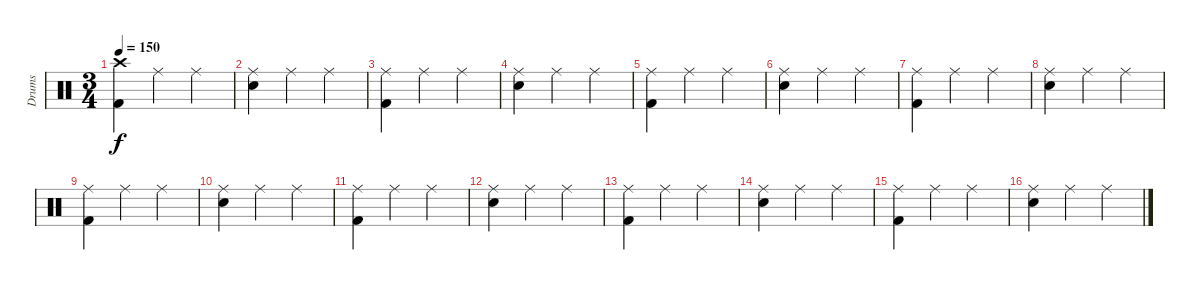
\track ("Drums" "Drums") {instrument percussion}
\staff {score}
\articulation defaults
\ts (3 4)
\tempo 150
\clef neutral
\ks c
("Crash high (hit)" "Kick (hit) 2").4{dy f volume 9} "Ride (middle)".4 "Ride (middle)".4 |
("Ride (middle)" "Snare (hit) 2").4 "Ride (middle)".4 "Ride (middle)".4 |
("Ride (middle)" "Kick (hit) 2").4 "Ride (middle)".4 "Ride (middle)".4 |
("Ride (middle)" "Snare (hit) 2").4 "Ride (middle)".4 "Ride (middle)".4 |
("Ride (middle)" "Kick (hit) 2").4 "Ride (middle)".4 "Ride (middle)".4 |
("Ride (middle)" "Snare (hit) 2").4 "Ride (middle)".4 "Ride (middle)".4 |
("Ride (middle)" "Kick (hit) 2").4 "Ride (middle)".4 "Ride (middle)".4 |
("Ride (middle)" "Snare (hit) 2").4 "Ride (middle)".4 "Ride (middle)".4 |
("Ride (middle)" "Kick (hit) 2").4{volume 7} "Ride (middle)".4 "Ride (middle)".4 |
("Ride (middle)" "Snare (hit) 2").4 "Ride (middle)".4 "Ride (middle)".4 |
("Ride (middle)" "Kick (hit) 2").4 "Ride (middle)".4 "Ride (middle)".4 |
("Ride (middle)" "Snare (hit) 2").4 "Ride (middle)".4 "Ride (middle)".4 |
("Ride (middle)" "Kick (hit) 2").4 "Ride (middle)".4 "Ride (middle)".4 |
("Ride (middle)" "Snare (hit) 2").4 "Ride (middle)".4 "Ride (middle)".4 |
("Ride (middle)" "Kick (hit) 2").4 "Ride (middle)".4 "Ride (middle)".4 |
("Ride (middle)" "Snare (hit) 2").4 "Ride (middle)".4 "Ride (middle)".4
